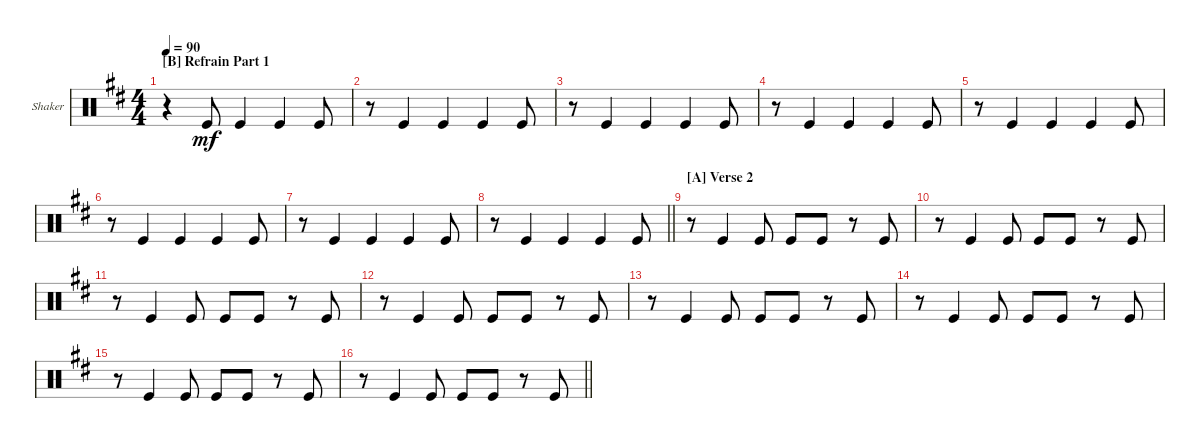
\defaultSystemsLayout 4
\bracketExtendMode groupsimilarinstruments
\firstSystemTrackNameOrientation horizontal
\otherSystemsTrackNameOrientation horizontal
\track ("Shaker" "Shaker") {instrument percussion}
\staff {score}
\articulation defaults
\ts (4 4)
\section ("B" "Refrain Part 1")
\tempo 90
\clef neutral
\scale
0.25
\ks d
r.4{dy mf} "Kick (hit)".8 "Kick (hit)".4 "Kick (hit)".4 "Kick (hit)".8 |
\scale
0.25 r.8 "Kick (hit)".4 "Kick (hit)".4 "Kick (hit)".4 "Kick (hit)".8 |
\scale
0.25 r.8 "Kick (hit)".4 "Kick (hit)".4 "Kick (hit)".4 "Kick (hit)".8 |
\scale
0.25 r.8 "Kick (hit)".4 "Kick (hit)".4 "Kick (hit)".4 "Kick (hit)".8 |
\scale
0.25 r.8 "Kick (hit)".4 "Kick (hit)".4 "Kick (hit)".4 "Kick (hit)".8 |
\scale
0.25 r.8 "Kick (hit)".4 "Kick (hit)".4 "Kick (hit)".4 "Kick (hit)".8 |
\scale
0.25 r.8 "Kick (hit)".4 "Kick (hit)".4 "Kick (hit)".4 "Kick (hit)".8 |
\scale
0.25
\barLineRight lightlight
r.8 "Kick (hit)".4 "Kick (hit)".4 "Kick (hit)".4 "Kick (hit)".8 |
\section ("A" "Verse 2")
\scale
0.25 r.8 "Kick (hit)".4 "Kick (hit)".8 "Kick (hit)".8 "Kick (hit)".8 r.8 "Kick (hit)".8 |
\scale
0.25 r.8 "Kick (hit)".4 "Kick (hit)".8 "Kick (hit)".8 "Kick (hit)".8 r.8 "Kick (hit)".8 |
\scale
0.25 r.8 "Kick (hit)".4 "Kick (hit)".8 "Kick (hit)".8 "Kick (hit)".8 r.8 "Kick (hit)".8 |
\scale
0.25 r.8 "Kick (hit)".4 "Kick (hit)".8 "Kick (hit)".8 "Kick (hit)".8 r.8 "Kick (hit)".8 |
\scale
0.25 r.8 "Kick (hit)".4 "Kick (hit)".8 "Kick (hit)".8 "Kick (hit)".8 r.8 "Kick (hit)".8 |
\scale
0.25 r.8 "Kick (hit)".4 "Kick (hit)".8 "Kick (hit)".8 "Kick (hit)".8 r.8 "Kick (hit)".8 |
\scale
0.25 r.8 "Kick (hit)".4 "Kick (hit)".8 "Kick (hit)".8 "Kick (hit)".8 r.8 "Kick (hit)".8 |
\scale
0.25
\barLineRight lightlight
r.8 "Kick (hit)".4 "Kick (hit)".8 "Kick (hit)".8 "Kick (hit)".8 r.8 "Kick (hit)".8
